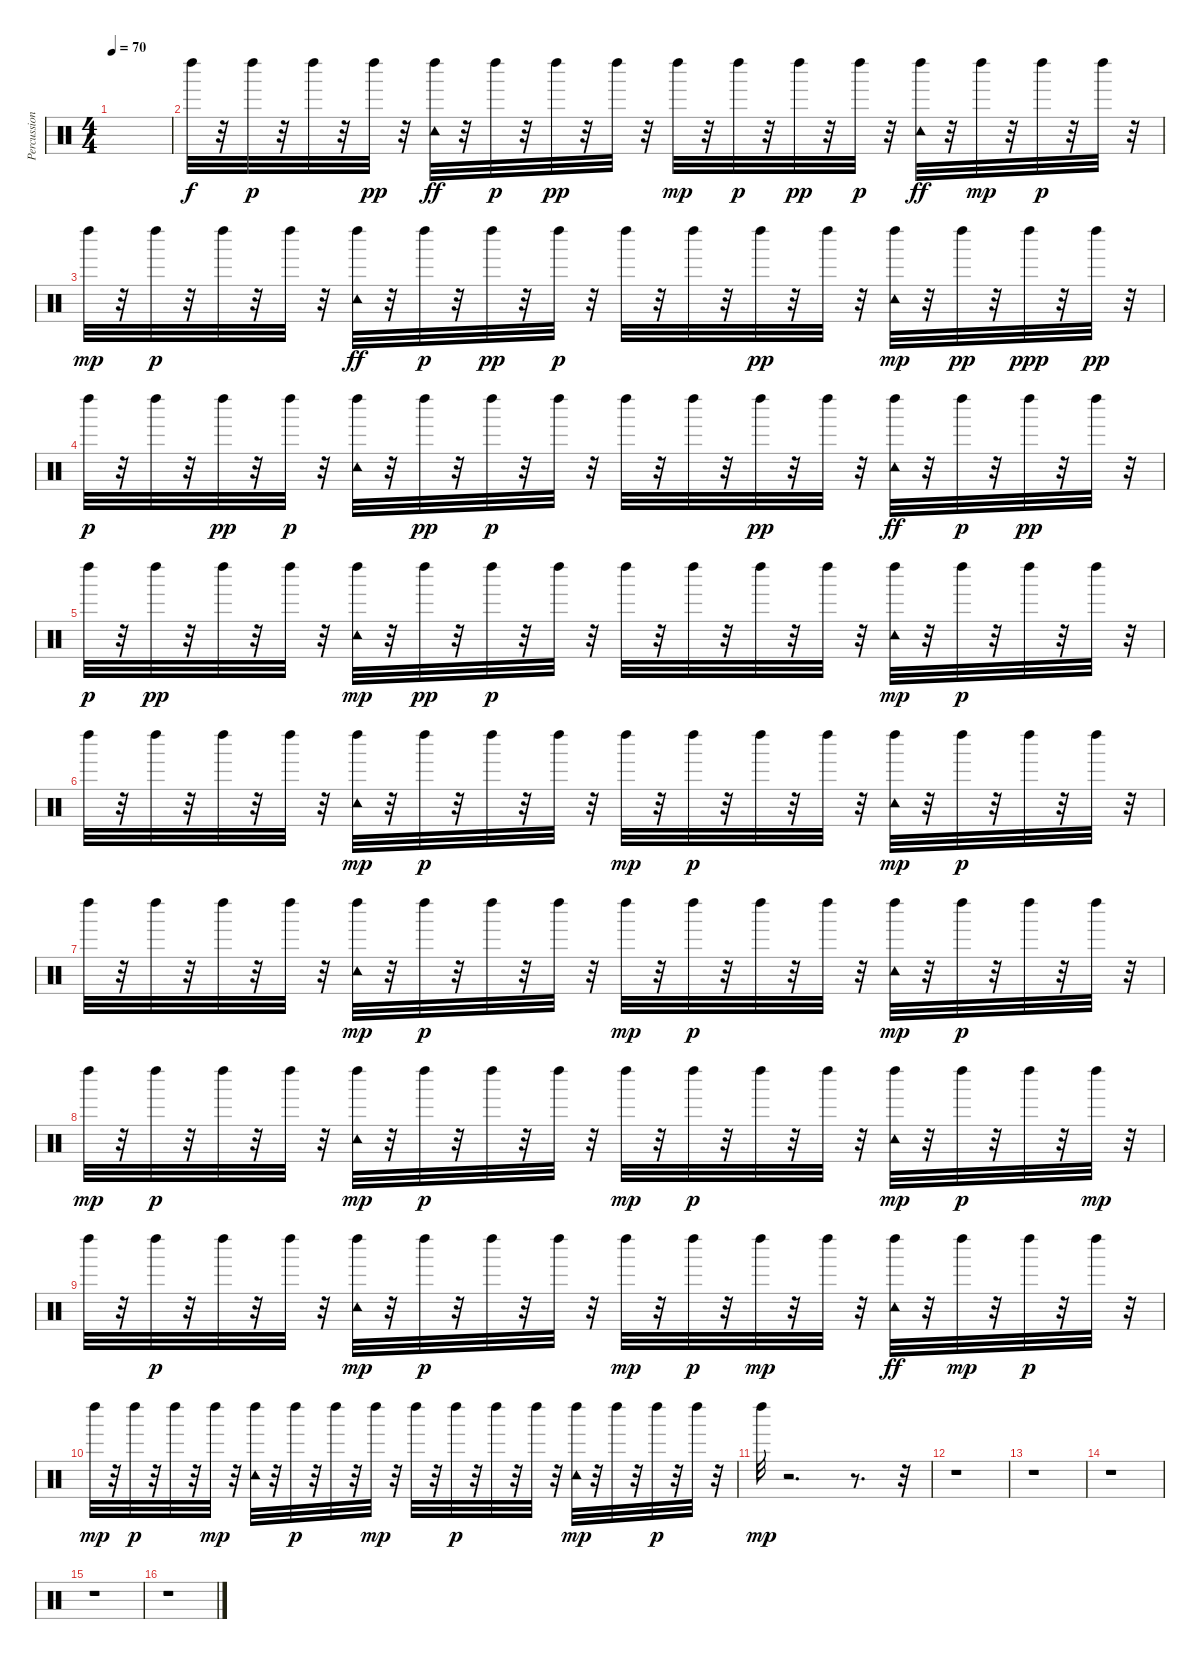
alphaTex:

\track ("Percussion" "Percussion") {instrument percussion}
\staff {score}
\articulation defaults
\ts (4 4)
\tempo 70
\clef neutral
\ks c
|
"Left Maraca (hit)".32 r.32 "Left Maraca (hit)".32{dy p} r.32 "Left Maraca (hit)".32 r.32 "Left Maraca (hit)".32{dy pp} r.32 ("Left Maraca (hit)" "Tambourine (hit)").32{dy ff} r.32 "Left Maraca (hit)".32{dy p} r.32 "Left Maraca (hit)".32{dy pp} r.32 "Left Maraca (hit)".32 r.32 "Left Maraca (hit)".32{dy mp} r.32 "Left Maraca (hit)".32{dy p} r.32 "Left Maraca (hit)".32{dy pp} r.32 "Left Maraca (hit)".32{dy p} r.32 ("Left Maraca (hit)" "Tambourine (hit)").32{dy ff} r.32 "Left Maraca (hit)".32{dy mp} r.32 "Left Maraca (hit)".32{dy p} r.32 "Left Maraca (hit)".32 r.32 |
"Left Maraca (hit)".32{dy mp} r.32 "Left Maraca (hit)".32{dy p} r.32 "Left Maraca (hit)".32 r.32 "Left Maraca (hit)".32 r.32 ("Left Maraca (hit)" "Tambourine (hit)").32{dy ff} r.32 "Left Maraca (hit)".32{dy p} r.32 "Left Maraca (hit)".32{dy pp} r.32 "Left Maraca (hit)".32{dy p} r.32 "Left Maraca (hit)".32 r.32 "Left Maraca (hit)".32 r.32 "Left Maraca (hit)".32{dy pp} r.32 "Left Maraca (hit)".32 r.32 ("Left Maraca (hit)" "Tambourine (hit)").32{dy mp} r.32 "Left Maraca (hit)".32{dy pp} r.32 "Left Maraca (hit)".32{dy ppp} r.32 "Left Maraca (hit)".32{dy pp} r.32 |
"Left Maraca (hit)".32{dy p} r.32 "Left Maraca (hit)".32 r.32 "Left Maraca (hit)".32{dy pp} r.32 "Left Maraca (hit)".32{dy p} r.32 ("Tambourine (hit)" "Left Maraca (hit)").32 r.32 "Left Maraca (hit)".32{dy pp} r.32 "Left Maraca (hit)".32{dy p} r.32 "Left Maraca (hit)".32 r.32 "Left Maraca (hit)".32 r.32 "Left Maraca (hit)".32 r.32 "Left Maraca (hit)".32{dy pp} r.32 "Left Maraca (hit)".32 r.32 ("Left Maraca (hit)" "Tambourine (hit)").32{dy ff} r.32 "Left Maraca (hit)".32{dy p} r.32 "Left Maraca (hit)".32{dy pp} r.32 "Left Maraca (hit)".32 r.32 |
"Left Maraca (hit)".32{dy p} r.32 "Left Maraca (hit)".32{dy pp} r.32 "Left Maraca (hit)".32 r.32 "Left Maraca (hit)".32 r.32 ("Tambourine (hit)" "Left Maraca (hit)").32{dy mp} r.32 "Left Maraca (hit)".32{dy pp} r.32 "Left Maraca (hit)".32{dy p} r.32 "Left Maraca (hit)".32 r.32 "Left Maraca (hit)".32 r.32 "Left Maraca (hit)".32 r.32 "Left Maraca (hit)".32 r.32 "Left Maraca (hit)".32 r.32 ("Tambourine (hit)" "Left Maraca (hit)").32{dy mp} r.32 "Left Maraca (hit)".32{dy p} r.32 "Left Maraca (hit)".32 r.32 "Left Maraca (hit)".32 r.32 |
"Left Maraca (hit)".32 r.32 "Left Maraca (hit)".32 r.32 "Left Maraca (hit)".32 r.32 "Left Maraca (hit)".32 r.32 ("Tambourine (hit)" "Left Maraca (hit)").32{dy mp} r.32 "Left Maraca (hit)".32{dy p} r.32 "Left Maraca (hit)".32 r.32 "Left Maraca (hit)".32 r.32 "Left Maraca (hit)".32{dy mp} r.32 "Left Maraca (hit)".32{dy p} r.32 "Left Maraca (hit)".32 r.32 "Left Maraca (hit)".32 r.32 ("Tambourine (hit)" "Left Maraca (hit)").32{dy mp} r.32 "Left Maraca (hit)".32{dy p} r.32 "Left Maraca (hit)".32 r.32 "Left Maraca (hit)".32 r.32 |
"Left Maraca (hit)".32 r.32 "Left Maraca (hit)".32 r.32 "Left Maraca (hit)".32 r.32 "Left Maraca (hit)".32 r.32 ("Tambourine (hit)" "Left Maraca (hit)").32{dy mp} r.32 "Left Maraca (hit)".32{dy p} r.32 "Left Maraca (hit)".32 r.32 "Left Maraca (hit)".32 r.32 "Left Maraca (hit)".32{dy mp} r.32 "Left Maraca (hit)".32{dy p} r.32 "Left Maraca (hit)".32 r.32 "Left Maraca (hit)".32 r.32 ("Tambourine (hit)" "Left Maraca (hit)").32{dy mp} r.32 "Left Maraca (hit)".32{dy p} r.32 "Left Maraca (hit)".32 r.32 "Left Maraca (hit)".32 r.32 |
"Left Maraca (hit)".32{dy mp} r.32 "Left Maraca (hit)".32{dy p} r.32 "Left Maraca (hit)".32 r.32 "Left Maraca (hit)".32 r.32 ("Tambourine (hit)" "Left Maraca (hit)").32{dy mp} r.32 "Left Maraca (hit)".32{dy p} r.32 "Left Maraca (hit)".32 r.32 "Left Maraca (hit)".32 r.32 "Left Maraca (hit)".32{dy mp} r.32 "Left Maraca (hit)".32{dy p} r.32 "Left Maraca (hit)".32 r.32 "Left Maraca (hit)".32 r.32 ("Tambourine (hit)" "Left Maraca (hit)").32{dy mp} r.32 "Left Maraca (hit)".32{dy p} r.32 "Left Maraca (hit)".32 r.32 "Left Maraca (hit)".32{dy mp} r.32 |
"Left Maraca (hit)".32 r.32 "Left Maraca (hit)".32{dy p} r.32 "Left Maraca (hit)".32 r.32 "Left Maraca (hit)".32 r.32 ("Tambourine (hit)" "Left Maraca (hit)").32{dy mp} r.32 "Left Maraca (hit)".32{dy p} r.32 "Left Maraca (hit)".32 r.32 "Left Maraca (hit)".32 r.32 "Left Maraca (hit)".32{dy mp} r.32 "Left Maraca (hit)".32{dy p} r.32 "Left Maraca (hit)".32{dy mp} r.32 "Left Maraca (hit)".32 r.32 ("Left Maraca (hit)" "Tambourine (hit)").32{dy ff} r.32 "Left Maraca (hit)".32{dy mp} r.32 "Left Maraca (hit)".32{dy p} r.32 "Left Maraca (hit)".32 r.32 |
"Left Maraca (hit)".32{dy mp} r.32 "Left Maraca (hit)".32{dy p} r.32 "Left Maraca (hit)".32 r.32 "Left Maraca (hit)".32{dy mp} r.32 ("Tambourine (hit)" "Left Maraca (hit)").32 r.32 "Left Maraca (hit)".32{dy p} r.32 "Left Maraca (hit)".32 r.32 "Left Maraca (hit)".32{dy mp} r.32 "Left Maraca (hit)".32 r.32 "Left Maraca (hit)".32{dy p} r.32 "Left Maraca (hit)".32 r.32 "Left Maraca (hit)".32 r.32 ("Left Maraca (hit)" "Tambourine (hit)").32{dy mp} r.32 "Left Maraca (hit)".32 r.32 "Left Maraca (hit)".32{dy p} r.32 "Left Maraca (hit)".32 r.32 |
"Left Maraca (hit)".32{dy mp} r.2{d} r.8{d} r.32 |
r.1 |
r.1 |
r.1 |
r.1 |
r.1
